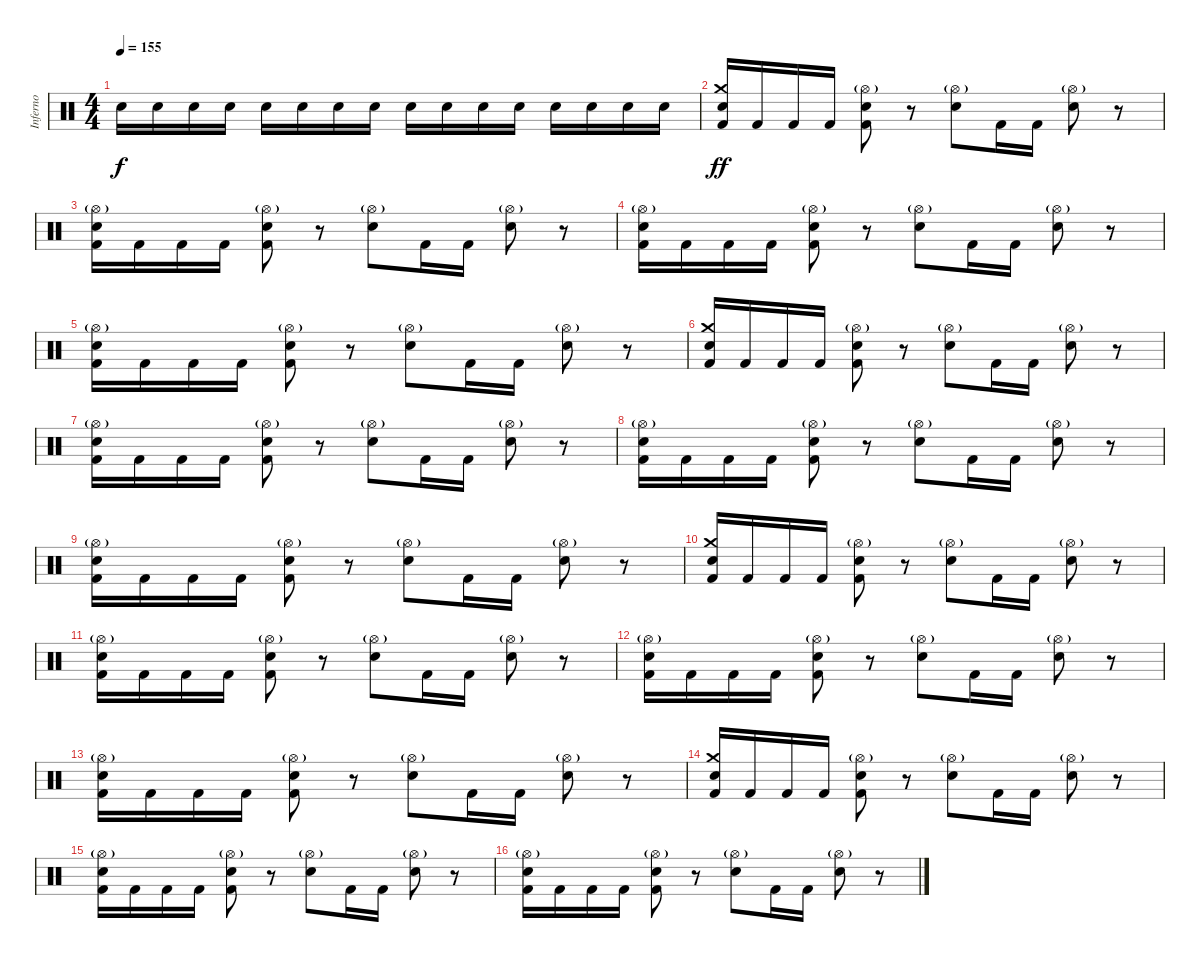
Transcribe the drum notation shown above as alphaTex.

\track ("Inferno" "Inferno") {instrument percussion}
\staff {score}
\articulation defaults
\ts (4 4)
\tempo 155
\clef neutral
\ks c "Snare (hit) 2".16{dy f} "Snare (hit) 2".16 "Snare (hit) 2".16 "Snare (hit) 2".16 "Snare (hit) 2".16 "Snare (hit) 2".16 "Snare (hit) 2".16 "Snare (hit) 2".16 "Snare (hit) 2".16 "Snare (hit) 2".16 "Snare (hit) 2".16 "Snare (hit) 2".16 "Snare (hit) 2".16 "Snare (hit) 2".16 "Snare (hit) 2".16 "Snare (hit) 2".16
|
("Crash medium (hit)" "Snare (hit) 2" "Kick (hit) 2").16{dy ff} "Kick (hit) 2".16 "Kick (hit) 2".16 "Kick (hit) 2".16 ("Hi-Hat (open)"{g} "Snare (hit) 2" "Kick (hit) 2").8 r.8 ("Hi-Hat (open)"{g} "Snare (hit) 2").8 "Kick (hit) 2".16 "Kick (hit) 2".16 ("Hi-Hat (open)"{g} "Snare (hit) 2").8 r.8 |
("Hi-Hat (open)"{g} "Snare (hit) 2" "Kick (hit) 2").16 "Kick (hit) 2".16 "Kick (hit) 2".16 "Kick (hit) 2".16 ("Hi-Hat (open)"{g} "Snare (hit) 2" "Kick (hit) 2").8 r.8 ("Hi-Hat (open)"{g} "Snare (hit) 2").8 "Kick (hit) 2".16 "Kick (hit) 2".16 ("Hi-Hat (open)"{g} "Snare (hit) 2").8 r.8 |
("Hi-Hat (open)"{g} "Snare (hit) 2" "Kick (hit) 2").16 "Kick (hit) 2".16 "Kick (hit) 2".16 "Kick (hit) 2".16 ("Hi-Hat (open)"{g} "Snare (hit) 2" "Kick (hit) 2").8 r.8 ("Hi-Hat (open)"{g} "Snare (hit) 2").8 "Kick (hit) 2".16 "Kick (hit) 2".16 ("Hi-Hat (open)"{g} "Snare (hit) 2").8 r.8 |
("Hi-Hat (open)"{g} "Snare (hit) 2" "Kick (hit) 2").16 "Kick (hit) 2".16 "Kick (hit) 2".16 "Kick (hit) 2".16 ("Hi-Hat (open)"{g} "Snare (hit) 2" "Kick (hit) 2").8 r.8 ("Hi-Hat (open)"{g} "Snare (hit) 2").8 "Kick (hit) 2".16 "Kick (hit) 2".16 ("Hi-Hat (open)"{g} "Snare (hit) 2").8 r.8 |
("Crash medium (hit)" "Snare (hit) 2" "Kick (hit) 2").16 "Kick (hit) 2".16 "Kick (hit) 2".16 "Kick (hit) 2".16 ("Hi-Hat (open)"{g} "Snare (hit) 2" "Kick (hit) 2").8 r.8 ("Hi-Hat (open)"{g} "Snare (hit) 2").8 "Kick (hit) 2".16 "Kick (hit) 2".16 ("Hi-Hat (open)"{g} "Snare (hit) 2").8 r.8 |
("Hi-Hat (open)"{g} "Snare (hit) 2" "Kick (hit) 2").16 "Kick (hit) 2".16 "Kick (hit) 2".16 "Kick (hit) 2".16 ("Hi-Hat (open)"{g} "Snare (hit) 2" "Kick (hit) 2").8 r.8 ("Hi-Hat (open)"{g} "Snare (hit) 2").8 "Kick (hit) 2".16 "Kick (hit) 2".16 ("Hi-Hat (open)"{g} "Snare (hit) 2").8 r.8 |
("Hi-Hat (open)"{g} "Snare (hit) 2" "Kick (hit) 2").16 "Kick (hit) 2".16 "Kick (hit) 2".16 "Kick (hit) 2".16 ("Hi-Hat (open)"{g} "Snare (hit) 2" "Kick (hit) 2").8 r.8 ("Hi-Hat (open)"{g} "Snare (hit) 2").8 "Kick (hit) 2".16 "Kick (hit) 2".16 ("Hi-Hat (open)"{g} "Snare (hit) 2").8 r.8 |
("Hi-Hat (open)"{g} "Snare (hit) 2" "Kick (hit) 2").16 "Kick (hit) 2".16 "Kick (hit) 2".16 "Kick (hit) 2".16 ("Hi-Hat (open)"{g} "Snare (hit) 2" "Kick (hit) 2").8 r.8 ("Hi-Hat (open)"{g} "Snare (hit) 2").8 "Kick (hit) 2".16 "Kick (hit) 2".16 ("Hi-Hat (open)"{g} "Snare (hit) 2").8 r.8 |
("Crash medium (hit)" "Snare (hit) 2" "Kick (hit) 2").16 "Kick (hit) 2".16 "Kick (hit) 2".16 "Kick (hit) 2".16 ("Hi-Hat (open)"{g} "Snare (hit) 2" "Kick (hit) 2").8 r.8 ("Hi-Hat (open)"{g} "Snare (hit) 2").8 "Kick (hit) 2".16 "Kick (hit) 2".16 ("Hi-Hat (open)"{g} "Snare (hit) 2").8 r.8 |
("Hi-Hat (open)"{g} "Snare (hit) 2" "Kick (hit) 2").16 "Kick (hit) 2".16 "Kick (hit) 2".16 "Kick (hit) 2".16 ("Hi-Hat (open)"{g} "Snare (hit) 2" "Kick (hit) 2").8 r.8 ("Hi-Hat (open)"{g} "Snare (hit) 2").8 "Kick (hit) 2".16 "Kick (hit) 2".16 ("Hi-Hat (open)"{g} "Snare (hit) 2").8 r.8 |
("Hi-Hat (open)"{g} "Snare (hit) 2" "Kick (hit) 2").16 "Kick (hit) 2".16 "Kick (hit) 2".16 "Kick (hit) 2".16 ("Hi-Hat (open)"{g} "Snare (hit) 2" "Kick (hit) 2").8 r.8 ("Hi-Hat (open)"{g} "Snare (hit) 2").8 "Kick (hit) 2".16 "Kick (hit) 2".16 ("Hi-Hat (open)"{g} "Snare (hit) 2").8 r.8 |
("Hi-Hat (open)"{g} "Snare (hit) 2" "Kick (hit) 2").16 "Kick (hit) 2".16 "Kick (hit) 2".16 "Kick (hit) 2".16 ("Hi-Hat (open)"{g} "Snare (hit) 2" "Kick (hit) 2").8 r.8 ("Hi-Hat (open)"{g} "Snare (hit) 2").8 "Kick (hit) 2".16 "Kick (hit) 2".16 ("Hi-Hat (open)"{g} "Snare (hit) 2").8 r.8 |
("Crash medium (hit)" "Snare (hit) 2" "Kick (hit) 2").16 "Kick (hit) 2".16 "Kick (hit) 2".16 "Kick (hit) 2".16 ("Hi-Hat (open)"{g} "Snare (hit) 2" "Kick (hit) 2").8 r.8 ("Hi-Hat (open)"{g} "Snare (hit) 2").8 "Kick (hit) 2".16 "Kick (hit) 2".16 ("Hi-Hat (open)"{g} "Snare (hit) 2").8 r.8 |
("Hi-Hat (open)"{g} "Snare (hit) 2" "Kick (hit) 2").16 "Kick (hit) 2".16 "Kick (hit) 2".16 "Kick (hit) 2".16 ("Hi-Hat (open)"{g} "Snare (hit) 2" "Kick (hit) 2").8 r.8 ("Hi-Hat (open)"{g} "Snare (hit) 2").8 "Kick (hit) 2".16 "Kick (hit) 2".16 ("Hi-Hat (open)"{g} "Snare (hit) 2").8 r.8 |
("Hi-Hat (open)"{g} "Snare (hit) 2" "Kick (hit) 2").16 "Kick (hit) 2".16 "Kick (hit) 2".16 "Kick (hit) 2".16 ("Hi-Hat (open)"{g} "Snare (hit) 2" "Kick (hit) 2").8 r.8 ("Hi-Hat (open)"{g} "Snare (hit) 2").8 "Kick (hit) 2".16 "Kick (hit) 2".16 ("Hi-Hat (open)"{g} "Snare (hit) 2").8 r.8
